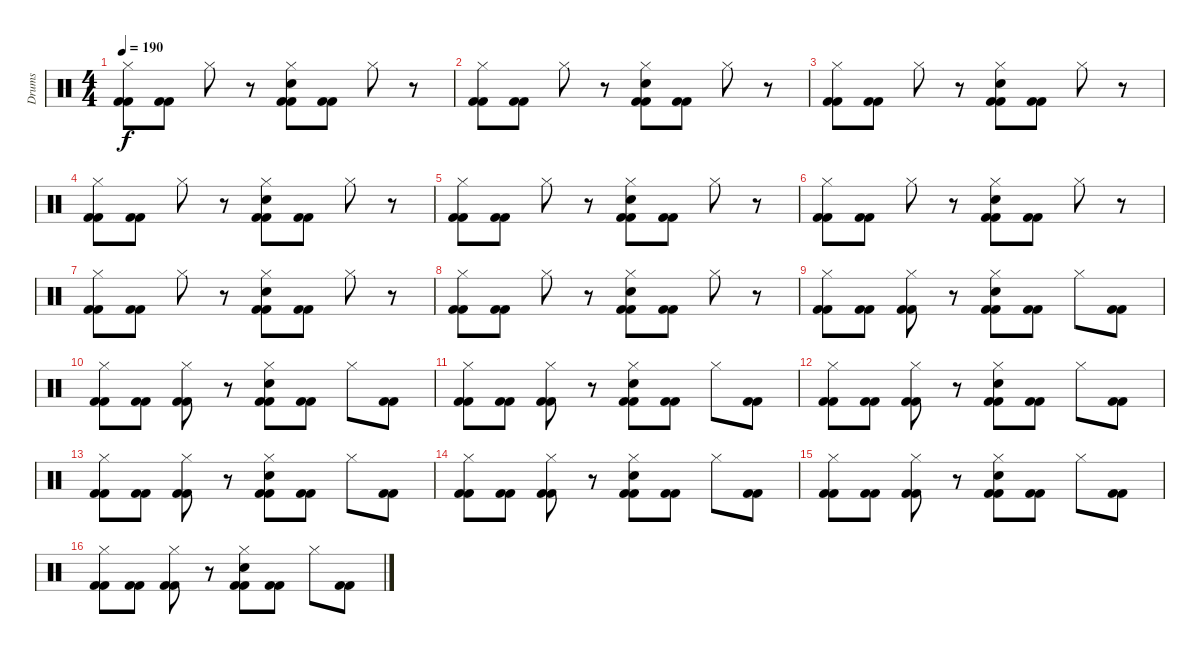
\track ("Drums" "Drums") {instrument percussion}
\staff {score}
\articulation defaults
\ts (4 4)
\tempo 190
\clef neutral
\ks c
("Hi-Hat (closed)" "Kick (hit) 2" "Kick (hit) 2").8{dy f} ("Kick (hit) 2" "Kick (hit) 2").8 "Hi-Hat (closed)".8 r.8 ("Hi-Hat (closed)" "Snare (hit) 2" "Kick (hit) 2" "Kick (hit) 2").8 ("Kick (hit) 2" "Kick (hit) 2").8 "Hi-Hat (closed)".8 r.8 |
("Hi-Hat (closed)" "Kick (hit) 2" "Kick (hit) 2").8 ("Kick (hit) 2" "Kick (hit) 2").8 "Hi-Hat (closed)".8 r.8 ("Hi-Hat (closed)" "Snare (hit) 2" "Kick (hit) 2" "Kick (hit) 2").8 ("Kick (hit) 2" "Kick (hit) 2").8 "Hi-Hat (closed)".8 r.8 |
("Hi-Hat (closed)" "Kick (hit) 2" "Kick (hit) 2").8 ("Kick (hit) 2" "Kick (hit) 2").8 "Hi-Hat (closed)".8 r.8 ("Hi-Hat (closed)" "Snare (hit) 2" "Kick (hit) 2" "Kick (hit) 2").8 ("Kick (hit) 2" "Kick (hit) 2").8 "Hi-Hat (closed)".8 r.8 |
("Hi-Hat (closed)" "Kick (hit) 2" "Kick (hit) 2").8 ("Kick (hit) 2" "Kick (hit) 2").8 "Hi-Hat (closed)".8 r.8 ("Hi-Hat (closed)" "Snare (hit) 2" "Kick (hit) 2" "Kick (hit) 2").8 ("Kick (hit) 2" "Kick (hit) 2").8 "Hi-Hat (closed)".8 r.8 |
("Hi-Hat (closed)" "Kick (hit) 2" "Kick (hit) 2").8 ("Kick (hit) 2" "Kick (hit) 2").8 "Hi-Hat (closed)".8 r.8 ("Hi-Hat (closed)" "Snare (hit) 2" "Kick (hit) 2" "Kick (hit) 2").8 ("Kick (hit) 2" "Kick (hit) 2").8 "Hi-Hat (closed)".8 r.8 |
("Hi-Hat (closed)" "Kick (hit) 2" "Kick (hit) 2").8 ("Kick (hit) 2" "Kick (hit) 2").8 "Hi-Hat (closed)".8 r.8 ("Hi-Hat (closed)" "Snare (hit) 2" "Kick (hit) 2" "Kick (hit) 2").8 ("Kick (hit) 2" "Kick (hit) 2").8 "Hi-Hat (closed)".8 r.8 |
("Hi-Hat (closed)" "Kick (hit) 2" "Kick (hit) 2").8 ("Kick (hit) 2" "Kick (hit) 2").8 "Hi-Hat (closed)".8 r.8 ("Hi-Hat (closed)" "Snare (hit) 2" "Kick (hit) 2" "Kick (hit) 2").8 ("Kick (hit) 2" "Kick (hit) 2").8 "Hi-Hat (closed)".8 r.8 |
("Hi-Hat (closed)" "Kick (hit) 2" "Kick (hit) 2").8 ("Kick (hit) 2" "Kick (hit) 2").8 "Hi-Hat (closed)".8 r.8 ("Hi-Hat (closed)" "Snare (hit) 2" "Kick (hit) 2" "Kick (hit) 2").8 ("Kick (hit) 2" "Kick (hit) 2").8 "Hi-Hat (closed)".8 r.8 |
("Hi-Hat (closed)" "Kick (hit) 2" "Kick (hit) 2").8 ("Kick (hit) 2" "Kick (hit) 2").8 ("Hi-Hat (closed)" "Kick (hit) 2" "Kick (hit) 2").8 r.8 ("Hi-Hat (closed)" "Snare (hit) 2" "Kick (hit) 2" "Kick (hit) 2").8 ("Kick (hit) 2" "Kick (hit) 2").8 "Hi-Hat (closed)".8 ("Kick (hit) 2" "Kick (hit) 2").8 |
("Hi-Hat (closed)" "Kick (hit) 2" "Kick (hit) 2").8 ("Kick (hit) 2" "Kick (hit) 2").8 ("Hi-Hat (closed)" "Kick (hit) 2" "Kick (hit) 2").8 r.8 ("Hi-Hat (closed)" "Snare (hit) 2" "Kick (hit) 2" "Kick (hit) 2").8 ("Kick (hit) 2" "Kick (hit) 2").8 "Hi-Hat (closed)".8 ("Kick (hit) 2" "Kick (hit) 2").8 |
("Hi-Hat (closed)" "Kick (hit) 2" "Kick (hit) 2").8 ("Kick (hit) 2" "Kick (hit) 2").8 ("Hi-Hat (closed)" "Kick (hit) 2" "Kick (hit) 2").8 r.8 ("Hi-Hat (closed)" "Snare (hit) 2" "Kick (hit) 2" "Kick (hit) 2").8 ("Kick (hit) 2" "Kick (hit) 2").8 "Hi-Hat (closed)".8 ("Kick (hit) 2" "Kick (hit) 2").8 |
("Hi-Hat (closed)" "Kick (hit) 2" "Kick (hit) 2").8 ("Kick (hit) 2" "Kick (hit) 2").8 ("Hi-Hat (closed)" "Kick (hit) 2" "Kick (hit) 2").8 r.8 ("Hi-Hat (closed)" "Snare (hit) 2" "Kick (hit) 2" "Kick (hit) 2").8 ("Kick (hit) 2" "Kick (hit) 2").8 "Hi-Hat (closed)".8 ("Kick (hit) 2" "Kick (hit) 2").8 |
("Hi-Hat (closed)" "Kick (hit) 2" "Kick (hit) 2").8 ("Kick (hit) 2" "Kick (hit) 2").8 ("Hi-Hat (closed)" "Kick (hit) 2" "Kick (hit) 2").8 r.8 ("Hi-Hat (closed)" "Snare (hit) 2" "Kick (hit) 2" "Kick (hit) 2").8 ("Kick (hit) 2" "Kick (hit) 2").8 "Hi-Hat (closed)".8 ("Kick (hit) 2" "Kick (hit) 2").8 |
("Hi-Hat (closed)" "Kick (hit) 2" "Kick (hit) 2").8 ("Kick (hit) 2" "Kick (hit) 2").8 ("Hi-Hat (closed)" "Kick (hit) 2" "Kick (hit) 2").8 r.8 ("Hi-Hat (closed)" "Snare (hit) 2" "Kick (hit) 2" "Kick (hit) 2").8 ("Kick (hit) 2" "Kick (hit) 2").8 "Hi-Hat (closed)".8 ("Kick (hit) 2" "Kick (hit) 2").8 |
("Hi-Hat (closed)" "Kick (hit) 2" "Kick (hit) 2").8 ("Kick (hit) 2" "Kick (hit) 2").8 ("Hi-Hat (closed)" "Kick (hit) 2" "Kick (hit) 2").8 r.8 ("Hi-Hat (closed)" "Snare (hit) 2" "Kick (hit) 2" "Kick (hit) 2").8 ("Kick (hit) 2" "Kick (hit) 2").8 "Hi-Hat (closed)".8 ("Kick (hit) 2" "Kick (hit) 2").8 |
("Hi-Hat (closed)" "Kick (hit) 2" "Kick (hit) 2").8 ("Kick (hit) 2" "Kick (hit) 2").8 ("Hi-Hat (closed)" "Kick (hit) 2" "Kick (hit) 2").8 r.8 ("Hi-Hat (closed)" "Snare (hit) 2" "Kick (hit) 2" "Kick (hit) 2").8 ("Kick (hit) 2" "Kick (hit) 2").8 "Hi-Hat (closed)".8 ("Kick (hit) 2" "Kick (hit) 2").8
